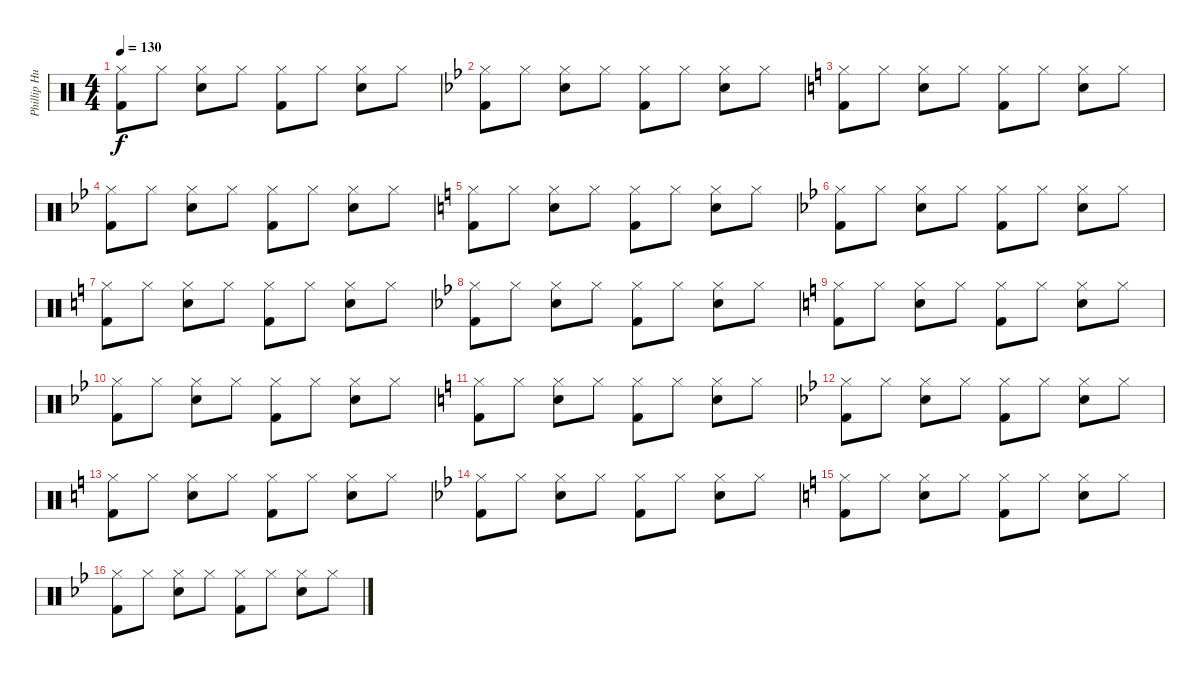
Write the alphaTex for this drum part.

\track ("Phillip Hungh" "Phillip Hu") {instrument percussion}
\staff {score}
\articulation defaults
\ts (4 4)
\tempo 130
\clef neutral
\ks c
("Hi-Hat (closed)" "Kick (hit) 2").8{dy f} "Hi-Hat (closed)".8 ("Hi-Hat (closed)" "Snare (hit) 2").8 "Hi-Hat (closed)".8 ("Hi-Hat (closed)" "Kick (hit) 2").8 "Hi-Hat (closed)".8 ("Hi-Hat (closed)" "Snare (hit) 2").8 "Hi-Hat (closed)".8 |
\ks bb
("Hi-Hat (closed)" "Kick (hit) 2").8 "Hi-Hat (closed)".8 ("Hi-Hat (closed)" "Snare (hit) 2").8 "Hi-Hat (closed)".8 ("Hi-Hat (closed)" "Kick (hit) 2").8 "Hi-Hat (closed)".8 ("Hi-Hat (closed)" "Snare (hit) 2").8 "Hi-Hat (closed)".8 |
\ks c
("Hi-Hat (closed)" "Kick (hit) 2").8 "Hi-Hat (closed)".8 ("Hi-Hat (closed)" "Snare (hit) 2").8 "Hi-Hat (closed)".8 ("Hi-Hat (closed)" "Kick (hit) 2").8 "Hi-Hat (closed)".8 ("Hi-Hat (closed)" "Snare (hit) 2").8 "Hi-Hat (closed)".8 |
\ks bb
("Hi-Hat (closed)" "Kick (hit) 2").8 "Hi-Hat (closed)".8 ("Hi-Hat (closed)" "Snare (hit) 2").8 "Hi-Hat (closed)".8 ("Hi-Hat (closed)" "Kick (hit) 2").8 "Hi-Hat (closed)".8 ("Hi-Hat (closed)" "Snare (hit) 2").8 "Hi-Hat (closed)".8 |
\ks c
("Hi-Hat (closed)" "Kick (hit) 2").8 "Hi-Hat (closed)".8 ("Hi-Hat (closed)" "Snare (hit) 2").8 "Hi-Hat (closed)".8 ("Hi-Hat (closed)" "Kick (hit) 2").8 "Hi-Hat (closed)".8 ("Hi-Hat (closed)" "Snare (hit) 2").8 "Hi-Hat (closed)".8 |
\ks bb
("Hi-Hat (closed)" "Kick (hit) 2").8 "Hi-Hat (closed)".8 ("Hi-Hat (closed)" "Snare (hit) 2").8 "Hi-Hat (closed)".8 ("Hi-Hat (closed)" "Kick (hit) 2").8 "Hi-Hat (closed)".8 ("Hi-Hat (closed)" "Snare (hit) 2").8 "Hi-Hat (closed)".8 |
\ks c
("Hi-Hat (closed)" "Kick (hit) 2").8 "Hi-Hat (closed)".8 ("Hi-Hat (closed)" "Snare (hit) 2").8 "Hi-Hat (closed)".8 ("Hi-Hat (closed)" "Kick (hit) 2").8 "Hi-Hat (closed)".8 ("Hi-Hat (closed)" "Snare (hit) 2").8 "Hi-Hat (closed)".8 |
\ks bb
("Hi-Hat (closed)" "Kick (hit) 2").8 "Hi-Hat (closed)".8 ("Hi-Hat (closed)" "Snare (hit) 2").8 "Hi-Hat (closed)".8 ("Hi-Hat (closed)" "Kick (hit) 2").8 "Hi-Hat (closed)".8 ("Hi-Hat (closed)" "Snare (hit) 2").8 "Hi-Hat (closed)".8 |
\ks c
("Hi-Hat (closed)" "Kick (hit) 2").8 "Hi-Hat (closed)".8 ("Hi-Hat (closed)" "Snare (hit) 2").8 "Hi-Hat (closed)".8 ("Hi-Hat (closed)" "Kick (hit) 2").8 "Hi-Hat (closed)".8 ("Hi-Hat (closed)" "Snare (hit) 2").8 "Hi-Hat (closed)".8 |
\ks bb
("Hi-Hat (closed)" "Kick (hit) 2").8 "Hi-Hat (closed)".8 ("Hi-Hat (closed)" "Snare (hit) 2").8 "Hi-Hat (closed)".8 ("Hi-Hat (closed)" "Kick (hit) 2").8 "Hi-Hat (closed)".8 ("Hi-Hat (closed)" "Snare (hit) 2").8 "Hi-Hat (closed)".8 |
\ks c
("Hi-Hat (closed)" "Kick (hit) 2").8 "Hi-Hat (closed)".8 ("Hi-Hat (closed)" "Snare (hit) 2").8 "Hi-Hat (closed)".8 ("Hi-Hat (closed)" "Kick (hit) 2").8 "Hi-Hat (closed)".8 ("Hi-Hat (closed)" "Snare (hit) 2").8 "Hi-Hat (closed)".8 |
\ks bb
("Hi-Hat (closed)" "Kick (hit) 2").8 "Hi-Hat (closed)".8 ("Hi-Hat (closed)" "Snare (hit) 2").8 "Hi-Hat (closed)".8 ("Hi-Hat (closed)" "Kick (hit) 2").8 "Hi-Hat (closed)".8 ("Hi-Hat (closed)" "Snare (hit) 2").8 "Hi-Hat (closed)".8 |
\ks c
("Hi-Hat (closed)" "Kick (hit) 2").8 "Hi-Hat (closed)".8 ("Hi-Hat (closed)" "Snare (hit) 2").8 "Hi-Hat (closed)".8 ("Hi-Hat (closed)" "Kick (hit) 2").8 "Hi-Hat (closed)".8 ("Hi-Hat (closed)" "Snare (hit) 2").8 "Hi-Hat (closed)".8 |
\ks bb
("Hi-Hat (closed)" "Kick (hit) 2").8 "Hi-Hat (closed)".8 ("Hi-Hat (closed)" "Snare (hit) 2").8 "Hi-Hat (closed)".8 ("Hi-Hat (closed)" "Kick (hit) 2").8 "Hi-Hat (closed)".8 ("Hi-Hat (closed)" "Snare (hit) 2").8 "Hi-Hat (closed)".8 |
\ks c
("Hi-Hat (closed)" "Kick (hit) 2").8 "Hi-Hat (closed)".8 ("Hi-Hat (closed)" "Snare (hit) 2").8 "Hi-Hat (closed)".8 ("Hi-Hat (closed)" "Kick (hit) 2").8 "Hi-Hat (closed)".8 ("Hi-Hat (closed)" "Snare (hit) 2").8 "Hi-Hat (closed)".8 |
\ks bb
("Hi-Hat (closed)" "Kick (hit) 2").8 "Hi-Hat (closed)".8 ("Hi-Hat (closed)" "Snare (hit) 2").8 "Hi-Hat (closed)".8 ("Hi-Hat (closed)" "Kick (hit) 2").8 "Hi-Hat (closed)".8 ("Hi-Hat (closed)" "Snare (hit) 2").8 "Hi-Hat (closed)".8
